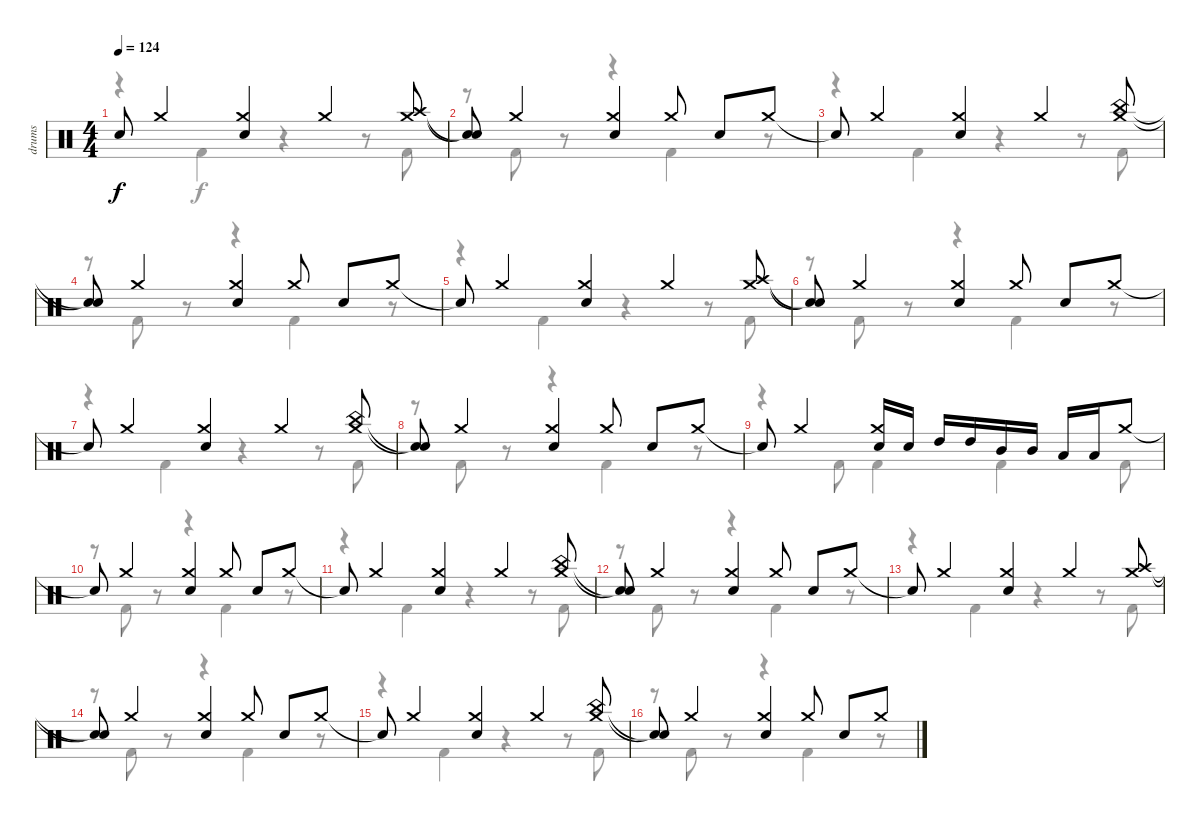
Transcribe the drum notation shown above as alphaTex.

\track ("drums" "drums") {instrument percussion}
\staff {score}
\articulation defaults
\voice
\ts (4 4)
\tempo 124
\clef neutral
\ks c "Snare (hit)"{t}.8{dy f} "Crash medium (hit)".4
("Crash medium (hit)" "Snare (hit) 2").4 "Crash medium (hit)".4 ("Crash medium (hit)" "Crash high (hit)").8 |
("Snare (hit)"{t} "Snare (hit)"{t}).8 "Crash medium (hit)".4 ("Crash medium (hit)" "Snare (hit) 2").4 "Crash medium (hit)".8 "Snare (hit) 2".8 "Crash medium (hit)".8 |
"Snare (hit)"{t}.8 "Crash medium (hit)".4 ("Crash medium (hit)" "Snare (hit) 2").4 "Crash medium (hit)".4 ("Crash medium (hit)" "China (hit)").8 |
("Snare (hit)"{t} "Snare (hit)"{t}).8 "Crash medium (hit)".4 ("Crash medium (hit)" "Snare (hit) 2").4 "Crash medium (hit)".8 "Snare (hit) 2".8 "Crash medium (hit)".8 |
"Snare (hit)"{t}.8 "Crash medium (hit)".4 ("Crash medium (hit)" "Snare (hit) 2").4 "Crash medium (hit)".4 ("Crash medium (hit)" "Crash high (hit)").8 |
("Snare (hit)"{t} "Snare (hit)"{t}).8 "Crash medium (hit)".4 ("Crash medium (hit)" "Snare (hit) 2").4 "Crash medium (hit)".8 "Snare (hit) 2".8 "Crash medium (hit)".8 |
"Snare (hit)"{t}.8 "Crash medium (hit)".4 ("Crash medium (hit)" "Snare (hit) 2").4 "Crash medium (hit)".4 ("Crash medium (hit)" "China (hit)").8 |
("Snare (hit)"{t} "Snare (hit)"{t}).8 "Crash medium (hit)".4 ("Crash medium (hit)" "Snare (hit) 2").4 "Crash medium (hit)".8 "Snare (hit) 2".8 "Crash medium (hit)".8 |
"Snare (hit)"{t}.8 "Crash medium (hit)".4 ("Crash medium (hit)" "Snare (hit) 2").16 "Snare (hit) 2".16 "High Tom (hit)".16 "High Tom (hit)".16 "Mid Tom (hit)".16 "Mid Tom (hit)".16 "Low Tom (hit)".16 "Low Tom (hit)".16 "Crash medium (hit)".8 |
"Snare (hit)"{t}.8 "Crash medium (hit)".4 ("Crash medium (hit)" "Snare (hit) 2").4 "Crash medium (hit)".8 "Snare (hit) 2".8 "Crash medium (hit)".8 |
"Snare (hit)"{t}.8 "Crash medium (hit)".4 ("Crash medium (hit)" "Snare (hit) 2").4 "Crash medium (hit)".4 ("Crash medium (hit)" "China (hit)").8 |
("Snare (hit)"{t} "Snare (hit)"{t}).8 "Crash medium (hit)".4 ("Crash medium (hit)" "Snare (hit) 2").4 "Crash medium (hit)".8 "Snare (hit) 2".8 "Crash medium (hit)".8 |
"Snare (hit)"{t}.8 "Crash medium (hit)".4 ("Crash medium (hit)" "Snare (hit) 2").4 "Crash medium (hit)".4 ("Crash medium (hit)" "Crash high (hit)").8 |
("Snare (hit)"{t} "Snare (hit)"{t}).8 "Crash medium (hit)".4 ("Crash medium (hit)" "Snare (hit) 2").4 "Crash medium (hit)".8 "Snare (hit) 2".8 "Crash medium (hit)".8 |
"Snare (hit)"{t}.8 "Crash medium (hit)".4 ("Crash medium (hit)" "Snare (hit) 2").4 "Crash medium (hit)".4 ("Crash medium (hit)" "China (hit)").8 |
("Snare (hit)"{t} "Snare (hit)"{t}).8 "Crash medium (hit)".4 ("Crash medium (hit)" "Snare (hit) 2").4 "Crash medium (hit)".8 "Snare (hit) 2".8 "Crash medium (hit)".8
\voice
\clef neutral
\ottava regular
\simile none
\ks c
r.4{dy f} "Kick (hit) 2".4 r.4 r.8 "Kick (hit) 2".8 |
r.8 "Kick (hit) 2".8 r.8 r.4 "Kick (hit) 2".4 r.8 |
r.4 "Kick (hit) 2".4 r.4 r.8 "Kick (hit) 2".8 |
r.8 "Kick (hit) 2".8 r.8 r.4 "Kick (hit) 2".4 r.8 |
r.4 "Kick (hit) 2".4 r.4 r.8 "Kick (hit) 2".8 |
r.8 "Kick (hit) 2".8 r.8 r.4 "Kick (hit) 2".4 r.8 |
r.4 "Kick (hit) 2".4 r.4 r.8 "Kick (hit) 2".8 |
r.8 "Kick (hit) 2".8 r.8 r.4 "Kick (hit) 2".4 r.8 |
r.4 "Kick (hit) 2".8 "Kick (hit) 2".4 "Kick (hit) 2".4 "Kick (hit) 2".8 |
r.8 "Kick (hit) 2".8 r.8 r.4 "Kick (hit) 2".4 r.8 |
r.4 "Kick (hit) 2".4 r.4 r.8 "Kick (hit) 2".8 |
r.8 "Kick (hit) 2".8 r.8 r.4 "Kick (hit) 2".4 r.8 |
r.4 "Kick (hit) 2".4 r.4 r.8 "Kick (hit) 2".8 |
r.8 "Kick (hit) 2".8 r.8 r.4 "Kick (hit) 2".4 r.8 |
r.4 "Kick (hit) 2".4 r.4 r.8 "Kick (hit) 2".8 |
r.8 "Kick (hit) 2".8 r.8 r.4 "Kick (hit) 2".4 r.8
